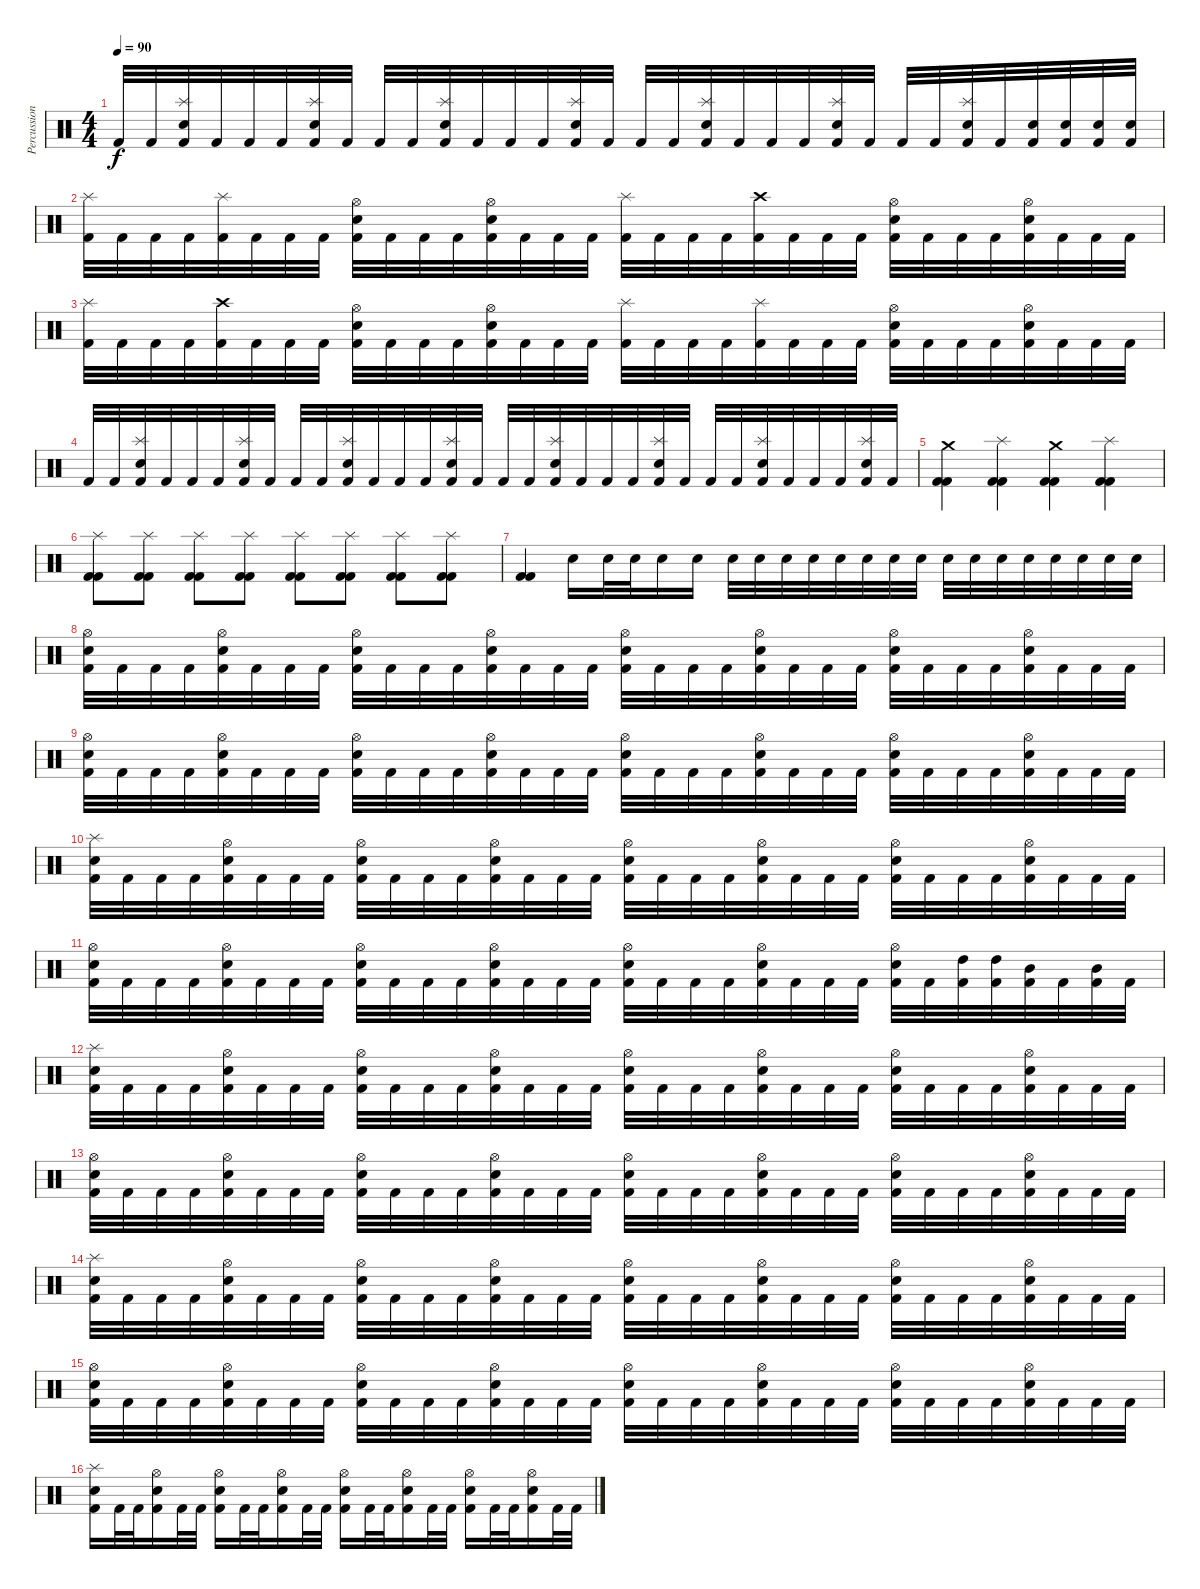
\track ("Percussions" "Percussion") {instrument percussion}
\staff {score}
\articulation defaults
\ts (4 4)
\tempo 90
\clef neutral
\ks c "Kick (hit) 2".32{dy f} "Kick (hit) 2".32
("Splash (hit)" "Electric Snare (hit)" "Kick (hit) 2").32 "Kick (hit) 2".32 "Kick (hit) 2".32 "Kick (hit) 2".32 ("Splash (hit)" "Electric Snare (hit)" "Kick (hit) 2").32 "Kick (hit) 2".32 "Kick (hit) 2".32 "Kick (hit) 2".32 ("Splash (hit)" "Electric Snare (hit)" "Kick (hit) 2").32 "Kick (hit) 2".32 "Kick (hit) 2".32 "Kick (hit) 2".32 ("Splash (hit)" "Electric Snare (hit)" "Kick (hit) 2").32 "Kick (hit) 2".32 "Kick (hit) 2".32 "Kick (hit) 2".32 ("Splash (hit)" "Electric Snare (hit)" "Kick (hit) 2").32 "Kick (hit) 2".32 "Kick (hit) 2".32 "Kick (hit) 2".32 ("Splash (hit)" "Electric Snare (hit)" "Kick (hit) 2").32 "Kick (hit) 2".32 "Kick (hit) 2".32 "Kick (hit) 2".32 ("Splash (hit)" "Electric Snare (hit)" "Kick (hit) 2").32 "Kick (hit) 2".32 ("Electric Snare (hit)" "Kick (hit) 2").32 ("Electric Snare (hit)" "Kick (hit) 2").32 ("Electric Snare (hit)" "Kick (hit) 2").32 ("Electric Snare (hit)" "Kick (hit) 2").32 |
("Splash (hit)" "Kick (hit) 2").32 "Kick (hit) 2".32 "Kick (hit) 2".32 "Kick (hit) 2".32 ("Splash (hit)" "Kick (hit) 2").32 "Kick (hit) 2".32 "Kick (hit) 2".32 "Kick (hit) 2".32 ("Hi-Hat (open)" "Electric Snare (hit)" "Kick (hit) 2").32 "Kick (hit) 2".32 "Kick (hit) 2".32 "Kick (hit) 2".32 ("Hi-Hat (open)" "Electric Snare (hit)" "Kick (hit) 2").32 "Kick (hit) 2".32 "Kick (hit) 2".32 "Kick (hit) 2".32 ("Splash (hit)" "Kick (hit) 2").32 "Kick (hit) 2".32 "Kick (hit) 2".32 "Kick (hit) 2".32 ("Crash high (hit)" "Kick (hit) 2").32 "Kick (hit) 2".32 "Kick (hit) 2".32 "Kick (hit) 2".32 ("Hi-Hat (open)" "Electric Snare (hit)" "Kick (hit) 2").32 "Kick (hit) 2".32 "Kick (hit) 2".32 "Kick (hit) 2".32 ("Hi-Hat (open)" "Electric Snare (hit)" "Kick (hit) 2").32 "Kick (hit) 2".32 "Kick (hit) 2".32 "Kick (hit) 2".32 |
("Splash (hit)" "Kick (hit) 2").32 "Kick (hit) 2".32 "Kick (hit) 2".32 "Kick (hit) 2".32 ("Crash high (hit)" "Kick (hit) 2").32 "Kick (hit) 2".32 "Kick (hit) 2".32 "Kick (hit) 2".32 ("Hi-Hat (open)" "Electric Snare (hit)" "Kick (hit) 2").32 "Kick (hit) 2".32 "Kick (hit) 2".32 "Kick (hit) 2".32 ("Hi-Hat (open)" "Electric Snare (hit)" "Kick (hit) 2").32 "Kick (hit) 2".32 "Kick (hit) 2".32 "Kick (hit) 2".32 ("Splash (hit)" "Kick (hit) 2").32 "Kick (hit) 2".32 "Kick (hit) 2".32 "Kick (hit) 2".32 ("Splash (hit)" "Kick (hit) 2").32 "Kick (hit) 2".32 "Kick (hit) 2".32 "Kick (hit) 2".32 ("Hi-Hat (open)" "Electric Snare (hit)" "Kick (hit) 2").32 "Kick (hit) 2".32 "Kick (hit) 2".32 "Kick (hit) 2".32 ("Hi-Hat (open)" "Electric Snare (hit)" "Kick (hit) 2").32 "Kick (hit) 2".32 "Kick (hit) 2".32 "Kick (hit) 2".32 |
"Kick (hit) 2".32 "Kick (hit) 2".32 ("Splash (hit)" "Electric Snare (hit)" "Kick (hit) 2").32 "Kick (hit) 2".32 "Kick (hit) 2".32 "Kick (hit) 2".32 ("Splash (hit)" "Electric Snare (hit)" "Kick (hit) 2").32 "Kick (hit) 2".32 "Kick (hit) 2".32 "Kick (hit) 2".32 ("Splash (hit)" "Electric Snare (hit)" "Kick (hit) 2").32 "Kick (hit) 2".32 "Kick (hit) 2".32 "Kick (hit) 2".32 ("Splash (hit)" "Electric Snare (hit)" "Kick (hit) 2").32 "Kick (hit) 2".32 "Kick (hit) 2".32 "Kick (hit) 2".32 ("Splash (hit)" "Electric Snare (hit)" "Kick (hit) 2").32 "Kick (hit) 2".32 "Kick (hit) 2".32 "Kick (hit) 2".32 ("Splash (hit)" "Electric Snare (hit)" "Kick (hit) 2").32 "Kick (hit) 2".32 "Kick (hit) 2".32 "Kick (hit) 2".32 ("Splash (hit)" "Electric Snare (hit)" "Kick (hit) 2").32 "Kick (hit) 2".32 "Kick (hit) 2".32 "Kick (hit) 2".32 ("Splash (hit)" "Electric Snare (hit)" "Kick (hit) 2").32 "Kick (hit) 2".32 |
("Crash medium (hit)" "Kick (hit) 2" "Kick (hit) 2").4 ("Splash (hit)" "Kick (hit) 2" "Kick (hit) 2").4 ("Crash medium (hit)" "Kick (hit) 2" "Kick (hit) 2").4 ("Splash (hit)" "Kick (hit) 2" "Kick (hit) 2").4 |
("Splash (hit)" "Kick (hit) 2" "Kick (hit) 2").8 ("Splash (hit)" "Kick (hit) 2" "Kick (hit) 2").8 ("Splash (hit)" "Kick (hit) 2" "Kick (hit) 2").8 ("Splash (hit)" "Kick (hit) 2" "Kick (hit) 2").8 ("Splash (hit)" "Kick (hit) 2" "Kick (hit) 2").8 ("Splash (hit)" "Kick (hit) 2" "Kick (hit) 2").8 ("Splash (hit)" "Kick (hit) 2" "Kick (hit) 2").8 ("Splash (hit)" "Kick (hit) 2" "Kick (hit) 2").8 |
("Kick (hit) 2" "Kick (hit) 2").4 "Electric Snare (hit)".16 "Electric Snare (hit)".32 "Electric Snare (hit)".32 "Electric Snare (hit)".16 "Electric Snare (hit)".16 "Electric Snare (hit)".32 "Electric Snare (hit)".32 "Electric Snare (hit)".32 "Electric Snare (hit)".32 "Electric Snare (hit)".32 "Electric Snare (hit)".32 "Electric Snare (hit)".32 "Electric Snare (hit)".32 "Electric Snare (hit)".32 "Electric Snare (hit)".32 "Snare (hit) 2".32 "Snare (hit) 2".32 "Snare (hit) 2".32 "Snare (hit) 2".32 "Snare (hit) 2".32 "Snare (hit) 2".32 |
("Hi-Hat (open)" "Electric Snare (hit)" "Kick (hit) 2").32 "Kick (hit) 2".32 "Kick (hit) 2".32 "Kick (hit) 2".32 ("Hi-Hat (open)" "Electric Snare (hit)" "Kick (hit) 2").32 "Kick (hit) 2".32 "Kick (hit) 2".32 "Kick (hit) 2".32 ("Hi-Hat (open)" "Electric Snare (hit)" "Kick (hit) 2").32 "Kick (hit) 2".32 "Kick (hit) 2".32 "Kick (hit) 2".32 ("Hi-Hat (open)" "Electric Snare (hit)" "Kick (hit) 2").32 "Kick (hit) 2".32 "Kick (hit) 2".32 "Kick (hit) 2".32 ("Hi-Hat (open)" "Electric Snare (hit)" "Kick (hit) 2").32 "Kick (hit) 2".32 "Kick (hit) 2".32 "Kick (hit) 2".32 ("Hi-Hat (open)" "Electric Snare (hit)" "Kick (hit) 2").32 "Kick (hit) 2".32 "Kick (hit) 2".32 "Kick (hit) 2".32 ("Hi-Hat (open)" "Electric Snare (hit)" "Kick (hit) 2").32 "Kick (hit) 2".32 "Kick (hit) 2".32 "Kick (hit) 2".32 ("Hi-Hat (open)" "Electric Snare (hit)" "Kick (hit) 2").32 "Kick (hit) 2".32 "Kick (hit) 2".32 "Kick (hit) 2".32 |
("Hi-Hat (open)" "Electric Snare (hit)" "Kick (hit) 2").32 "Kick (hit) 2".32 "Kick (hit) 2".32 "Kick (hit) 2".32 ("Hi-Hat (open)" "Electric Snare (hit)" "Kick (hit) 2").32 "Kick (hit) 2".32 "Kick (hit) 2".32 "Kick (hit) 2".32 ("Hi-Hat (open)" "Electric Snare (hit)" "Kick (hit) 2").32 "Kick (hit) 2".32 "Kick (hit) 2".32 "Kick (hit) 2".32 ("Hi-Hat (open)" "Electric Snare (hit)" "Kick (hit) 2").32 "Kick (hit) 2".32 "Kick (hit) 2".32 "Kick (hit) 2".32 ("Hi-Hat (open)" "Electric Snare (hit)" "Kick (hit) 2").32 "Kick (hit) 2".32 "Kick (hit) 2".32 "Kick (hit) 2".32 ("Hi-Hat (open)" "Electric Snare (hit)" "Kick (hit) 2").32 "Kick (hit) 2".32 "Kick (hit) 2".32 "Kick (hit) 2".32 ("Hi-Hat (open)" "Electric Snare (hit)" "Kick (hit) 2").32 "Kick (hit) 2".32 "Kick (hit) 2".32 "Kick (hit) 2".32 ("Hi-Hat (open)" "Electric Snare (hit)" "Kick (hit) 2").32 "Kick (hit) 2".32 "Kick (hit) 2".32 "Kick (hit) 2".32 |
("Splash (hit)" "Electric Snare (hit)" "Kick (hit) 2").32 "Kick (hit) 2".32 "Kick (hit) 2".32 "Kick (hit) 2".32 ("Hi-Hat (open)" "Electric Snare (hit)" "Kick (hit) 2").32 "Kick (hit) 2".32 "Kick (hit) 2".32 "Kick (hit) 2".32 ("Hi-Hat (open)" "Electric Snare (hit)" "Kick (hit) 2").32 "Kick (hit) 2".32 "Kick (hit) 2".32 "Kick (hit) 2".32 ("Hi-Hat (open)" "Electric Snare (hit)" "Kick (hit) 2").32 "Kick (hit) 2".32 "Kick (hit) 2".32 "Kick (hit) 2".32 ("Hi-Hat (open)" "Electric Snare (hit)" "Kick (hit) 2").32 "Kick (hit) 2".32 "Kick (hit) 2".32 "Kick (hit) 2".32 ("Hi-Hat (open)" "Electric Snare (hit)" "Kick (hit) 2").32 "Kick (hit) 2".32 "Kick (hit) 2".32 "Kick (hit) 2".32 ("Hi-Hat (open)" "Electric Snare (hit)" "Kick (hit) 2").32 "Kick (hit) 2".32 "Kick (hit) 2".32 "Kick (hit) 2".32 ("Hi-Hat (open)" "Electric Snare (hit)" "Kick (hit) 2").32 "Kick (hit) 2".32 "Kick (hit) 2".32 "Kick (hit) 2".32 |
("Hi-Hat (open)" "Electric Snare (hit)" "Kick (hit) 2").32 "Kick (hit) 2".32 "Kick (hit) 2".32 "Kick (hit) 2".32 ("Hi-Hat (open)" "Electric Snare (hit)" "Kick (hit) 2").32 "Kick (hit) 2".32 "Kick (hit) 2".32 "Kick (hit) 2".32 ("Hi-Hat (open)" "Electric Snare (hit)" "Kick (hit) 2").32 "Kick (hit) 2".32 "Kick (hit) 2".32 "Kick (hit) 2".32 ("Hi-Hat (open)" "Electric Snare (hit)" "Kick (hit) 2").32 "Kick (hit) 2".32 "Kick (hit) 2".32 "Kick (hit) 2".32 ("Hi-Hat (open)" "Electric Snare (hit)" "Kick (hit) 2").32 "Kick (hit) 2".32 "Kick (hit) 2".32 "Kick (hit) 2".32 ("Hi-Hat (open)" "Electric Snare (hit)" "Kick (hit) 2").32 "Kick (hit) 2".32 "Kick (hit) 2".32 "Kick (hit) 2".32 ("Hi-Hat (open)" "Electric Snare (hit)" "Kick (hit) 2").32 "Kick (hit) 2".32 ("High Tom (hit)" "Kick (hit) 2").32 ("High Tom (hit)" "Kick (hit) 2").32 ("Mid Tom (hit)" "Kick (hit) 2").32 "Kick (hit) 2".32 ("Mid Tom (hit)" "Kick (hit) 2").32 "Kick (hit) 2".32 |
("Splash (hit)" "Electric Snare (hit)" "Kick (hit) 2").32 "Kick (hit) 2".32 "Kick (hit) 2".32 "Kick (hit) 2".32 ("Hi-Hat (open)" "Electric Snare (hit)" "Kick (hit) 2").32 "Kick (hit) 2".32 "Kick (hit) 2".32 "Kick (hit) 2".32 ("Hi-Hat (open)" "Electric Snare (hit)" "Kick (hit) 2").32 "Kick (hit) 2".32 "Kick (hit) 2".32 "Kick (hit) 2".32 ("Hi-Hat (open)" "Electric Snare (hit)" "Kick (hit) 2").32 "Kick (hit) 2".32 "Kick (hit) 2".32 "Kick (hit) 2".32 ("Hi-Hat (open)" "Electric Snare (hit)" "Kick (hit) 2").32 "Kick (hit) 2".32 "Kick (hit) 2".32 "Kick (hit) 2".32 ("Hi-Hat (open)" "Electric Snare (hit)" "Kick (hit) 2").32 "Kick (hit) 2".32 "Kick (hit) 2".32 "Kick (hit) 2".32 ("Hi-Hat (open)" "Electric Snare (hit)" "Kick (hit) 2").32 "Kick (hit) 2".32 "Kick (hit) 2".32 "Kick (hit) 2".32 ("Hi-Hat (open)" "Electric Snare (hit)" "Kick (hit) 2").32 "Kick (hit) 2".32 "Kick (hit) 2".32 "Kick (hit) 2".32 |
("Hi-Hat (open)" "Electric Snare (hit)" "Kick (hit) 2").32 "Kick (hit) 2".32 "Kick (hit) 2".32 "Kick (hit) 2".32 ("Hi-Hat (open)" "Electric Snare (hit)" "Kick (hit) 2").32 "Kick (hit) 2".32 "Kick (hit) 2".32 "Kick (hit) 2".32 ("Hi-Hat (open)" "Electric Snare (hit)" "Kick (hit) 2").32 "Kick (hit) 2".32 "Kick (hit) 2".32 "Kick (hit) 2".32 ("Hi-Hat (open)" "Electric Snare (hit)" "Kick (hit) 2").32 "Kick (hit) 2".32 "Kick (hit) 2".32 "Kick (hit) 2".32 ("Hi-Hat (open)" "Electric Snare (hit)" "Kick (hit) 2").32 "Kick (hit) 2".32 "Kick (hit) 2".32 "Kick (hit) 2".32 ("Hi-Hat (open)" "Electric Snare (hit)" "Kick (hit) 2").32 "Kick (hit) 2".32 "Kick (hit) 2".32 "Kick (hit) 2".32 ("Hi-Hat (open)" "Electric Snare (hit)" "Kick (hit) 2").32 "Kick (hit) 2".32 "Kick (hit) 2".32 "Kick (hit) 2".32 ("Hi-Hat (open)" "Electric Snare (hit)" "Kick (hit) 2").32 "Kick (hit) 2".32 "Kick (hit) 2".32 "Kick (hit) 2".32 |
("Splash (hit)" "Electric Snare (hit)" "Kick (hit) 2").32 "Kick (hit) 2".32 "Kick (hit) 2".32 "Kick (hit) 2".32 ("Hi-Hat (open)" "Electric Snare (hit)" "Kick (hit) 2").32 "Kick (hit) 2".32 "Kick (hit) 2".32 "Kick (hit) 2".32 ("Hi-Hat (open)" "Electric Snare (hit)" "Kick (hit) 2").32 "Kick (hit) 2".32 "Kick (hit) 2".32 "Kick (hit) 2".32 ("Hi-Hat (open)" "Electric Snare (hit)" "Kick (hit) 2").32 "Kick (hit) 2".32 "Kick (hit) 2".32 "Kick (hit) 2".32 ("Hi-Hat (open)" "Electric Snare (hit)" "Kick (hit) 2").32 "Kick (hit) 2".32 "Kick (hit) 2".32 "Kick (hit) 2".32 ("Hi-Hat (open)" "Electric Snare (hit)" "Kick (hit) 2").32 "Kick (hit) 2".32 "Kick (hit) 2".32 "Kick (hit) 2".32 ("Hi-Hat (open)" "Electric Snare (hit)" "Kick (hit) 2").32 "Kick (hit) 2".32 "Kick (hit) 2".32 "Kick (hit) 2".32 ("Hi-Hat (open)" "Electric Snare (hit)" "Kick (hit) 2").32 "Kick (hit) 2".32 "Kick (hit) 2".32 "Kick (hit) 2".32 |
("Hi-Hat (open)" "Electric Snare (hit)" "Kick (hit) 2").32 "Kick (hit) 2".32 "Kick (hit) 2".32 "Kick (hit) 2".32 ("Hi-Hat (open)" "Electric Snare (hit)" "Kick (hit) 2").32 "Kick (hit) 2".32 "Kick (hit) 2".32 "Kick (hit) 2".32 ("Hi-Hat (open)" "Electric Snare (hit)" "Kick (hit) 2").32 "Kick (hit) 2".32 "Kick (hit) 2".32 "Kick (hit) 2".32 ("Hi-Hat (open)" "Electric Snare (hit)" "Kick (hit) 2").32 "Kick (hit) 2".32 "Kick (hit) 2".32 "Kick (hit) 2".32 ("Hi-Hat (open)" "Electric Snare (hit)" "Kick (hit) 2").32 "Kick (hit) 2".32 "Kick (hit) 2".32 "Kick (hit) 2".32 ("Hi-Hat (open)" "Electric Snare (hit)" "Kick (hit) 2").32 "Kick (hit) 2".32 "Kick (hit) 2".32 "Kick (hit) 2".32 ("Hi-Hat (open)" "Electric Snare (hit)" "Kick (hit) 2").32 "Kick (hit) 2".32 "Kick (hit) 2".32 "Kick (hit) 2".32 ("Hi-Hat (open)" "Electric Snare (hit)" "Kick (hit) 2").32 "Kick (hit) 2".32 "Kick (hit) 2".32 "Kick (hit) 2".32 |
("Splash (hit)" "Electric Snare (hit)" "Kick (hit) 2").16 "Kick (hit) 2".32 "Kick (hit) 2".32 ("Hi-Hat (open)" "Electric Snare (hit)" "Kick (hit) 2").16 "Kick (hit) 2".32 "Kick (hit) 2".32 ("Hi-Hat (open)" "Electric Snare (hit)" "Kick (hit) 2").16 "Kick (hit) 2".32 "Kick (hit) 2".32 ("Hi-Hat (open)" "Electric Snare (hit)" "Kick (hit) 2").16 "Kick (hit) 2".32 "Kick (hit) 2".32 ("Hi-Hat (open)" "Electric Snare (hit)" "Kick (hit) 2").16 "Kick (hit) 2".32 "Kick (hit) 2".32 ("Hi-Hat (open)" "Electric Snare (hit)" "Kick (hit) 2").16 "Kick (hit) 2".32 "Kick (hit) 2".32 ("Hi-Hat (open)" "Electric Snare (hit)" "Kick (hit) 2").16 "Kick (hit) 2".32 "Kick (hit) 2".32 ("Hi-Hat (open)" "Electric Snare (hit)" "Kick (hit) 2").16 "Kick (hit) 2".32 "Kick (hit) 2".32
